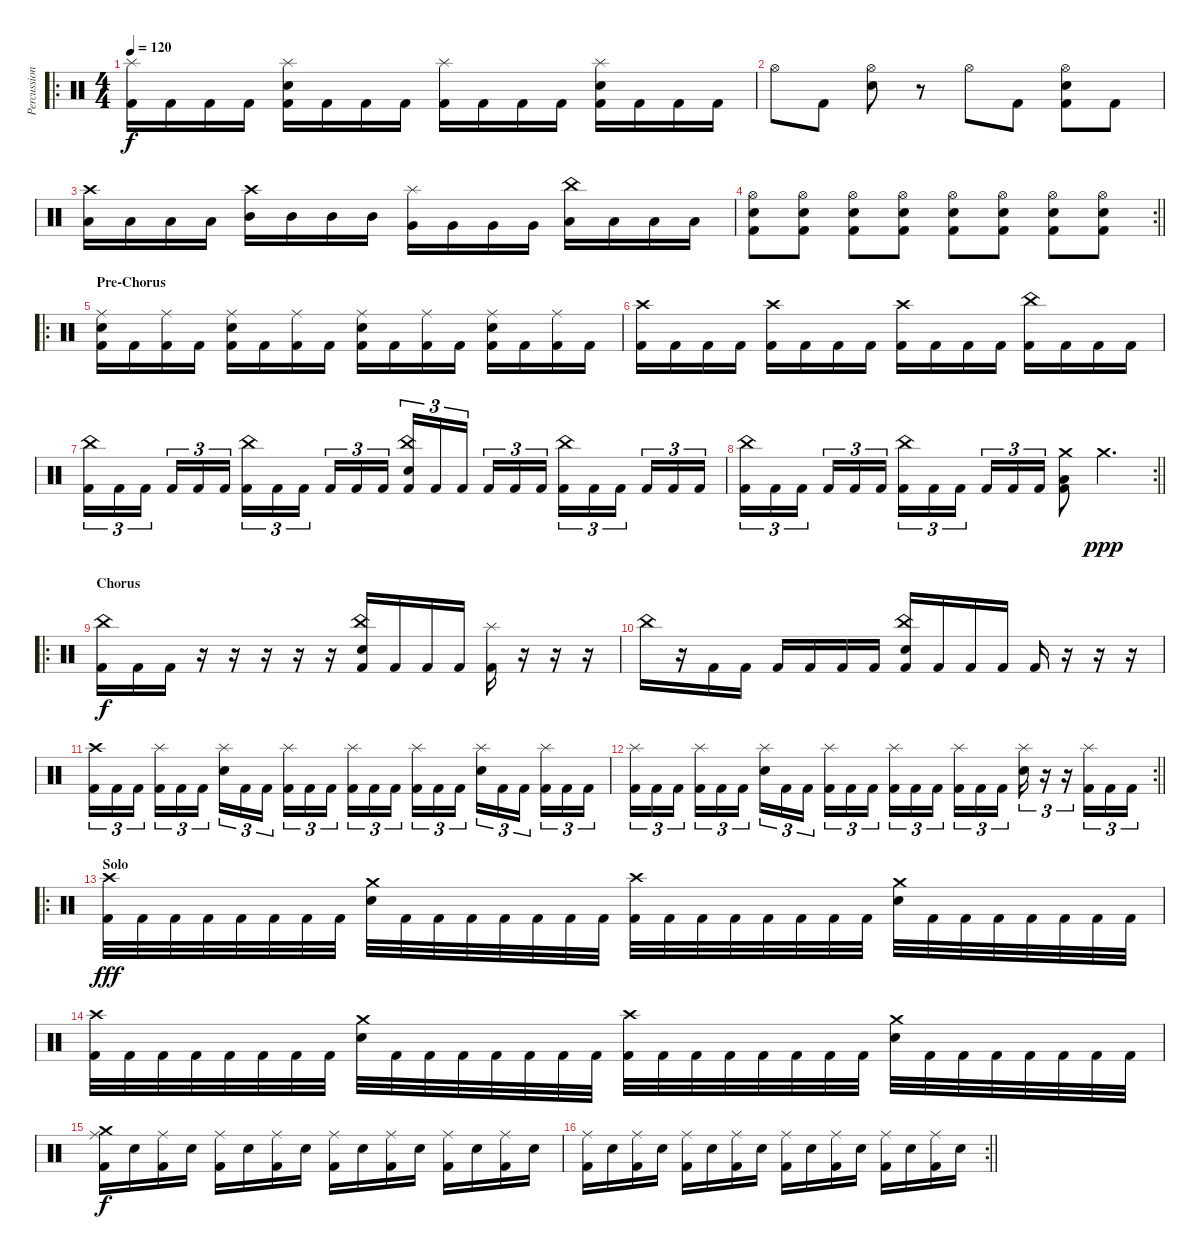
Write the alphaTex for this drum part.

\track ("Percussions" "Percussion") {instrument percussion}
\staff {score}
\articulation defaults
\ro
\ts (4 4)
\tempo 120
\clef neutral
\ks c
("Splash (hit)" "Kick (hit) 2").16{dy f} "Kick (hit) 2".16 "Kick (hit) 2".16 "Kick (hit) 2".16 ("Splash (hit)" "Electric Snare (hit)" "Kick (hit) 2").16 "Kick (hit) 2".16 "Kick (hit) 2".16 "Kick (hit) 2".16 ("Splash (hit)" "Kick (hit) 2").16 "Kick (hit) 2".16 "Kick (hit) 2".16 "Kick (hit) 2".16 ("Splash (hit)" "Electric Snare (hit)" "Kick (hit) 2").16 "Kick (hit) 2".16 "Kick (hit) 2".16 "Kick (hit) 2".16 |
"Hi-Hat (open)".8 "Kick (hit) 2".8 ("Electric Snare (hit)" "Hi-Hat (open)").8 r.8 "Hi-Hat (open)".8 "Kick (hit) 2".8 ("Kick (hit) 2" "Hi-Hat (open)" "Electric Snare (hit)").8 "Kick (hit) 2".8 |
("Low Tom (hit)" "Crash high (hit)").16 "Low Tom (hit)".16 "Low Tom (hit)".16 "Low Tom (hit)".16 ("Mid Tom (hit)" "Crash high (hit)").16 "Mid Tom (hit)".16 "Mid Tom (hit)".16 "Mid Tom (hit)".16 ("Very Low Tom (hit)" "Splash (hit)").16 "Very Low Tom (hit)".16 "Very Low Tom (hit)".16 "Very Low Tom (hit)".16 ("Low Floor Tom (hit)" "China (hit)").16 "Low Floor Tom (hit)".16 "Low Floor Tom (hit)".16 "Low Floor Tom (hit)".16 |
\rc 2
\barLineRight lightlight
("Kick (hit) 2" "Electric Snare (hit)" "Hi-Hat (open)").8 ("Hi-Hat (open)" "Kick (hit) 2" "Electric Snare (hit)").8 ("Electric Snare (hit)" "Kick (hit) 2" "Hi-Hat (open)").8 ("Hi-Hat (open)" "Kick (hit) 2" "Electric Snare (hit)").8 ("Hi-Hat (open)" "Kick (hit) 2" "Electric Snare (hit)").8 ("Electric Snare (hit)" "Kick (hit) 2" "Hi-Hat (open)").8 ("Hi-Hat (open)" "Kick (hit) 2" "Electric Snare (hit)").8 ("Electric Snare (hit)" "Kick (hit) 2" "Hi-Hat (open)").8 |
\ro
\section ("" "Pre-Chorus")
("Electric Snare (hit)" "Kick (hit) 2" "Ride (middle)").16 "Kick (hit) 2".16 ("Kick (hit) 2" "Ride (middle)").16 "Kick (hit) 2".16 ("Kick (hit) 2" "Electric Snare (hit)" "Ride (middle)").16 "Kick (hit) 2".16 ("Kick (hit) 2" "Ride (middle)").16 "Kick (hit) 2".16 ("Ride (middle)" "Kick (hit) 2" "Electric Snare (hit)").16 "Kick (hit) 2".16 ("Kick (hit) 2" "Ride (middle)").16 "Kick (hit) 2".16 ("Ride (middle)" "Kick (hit) 2" "Electric Snare (hit)").16 "Kick (hit) 2".16 ("Kick (hit) 2" "Ride (middle)").16 "Kick (hit) 2".16 |
("Kick (hit) 2" "Crash high (hit)").16 "Kick (hit) 2".16 "Kick (hit) 2".16 "Kick (hit) 2".16 ("Kick (hit) 2" "Crash high (hit)").16 "Kick (hit) 2".16 "Kick (hit) 2".16 "Kick (hit) 2".16 ("Kick (hit) 2" "Crash high (hit)").16 "Kick (hit) 2".16 "Kick (hit) 2".16 "Kick (hit) 2".16 ("Kick (hit) 2" "China (hit)").16 "Kick (hit) 2".16 "Kick (hit) 2".16 "Kick (hit) 2".16 |
("China (hit)" "Kick (hit) 2").16{tu (3 2)} "Kick (hit) 2".16{tu (3 2)} "Kick (hit) 2".16{tu (3 2) beam splitsecondary} "Kick (hit) 2".16{tu (3 2)} "Kick (hit) 2".16{tu (3 2)} "Kick (hit) 2".16{tu (3 2)} ("China (hit)" "Kick (hit) 2").16{tu (3 2)} "Kick (hit) 2".16{tu (3 2)} "Kick (hit) 2".16{tu (3 2) beam splitsecondary} "Kick (hit) 2".16{tu (3 2)} "Kick (hit) 2".16{tu (3 2)} "Kick (hit) 2".16{tu (3 2)} ("China (hit)" "Snare (hit) 2" "Kick (hit) 2").16{tu (3 2)} "Kick (hit) 2".16{tu (3 2)} "Kick (hit) 2".16{tu (3 2) beam splitsecondary} "Kick (hit) 2".16{tu (3 2)} "Kick (hit) 2".16{tu (3 2)} "Kick (hit) 2".16{tu (3 2)} ("China (hit)" "Kick (hit) 2").16{tu (3 2)} "Kick (hit) 2".16{tu (3 2)} "Kick (hit) 2".16{tu (3 2) beam splitsecondary} "Kick (hit) 2".16{tu (3 2)} "Kick (hit) 2".16{tu (3 2)} "Kick (hit) 2".16{tu (3 2)} |
\rc 2
\barLineRight lightlight
("China (hit)" "Kick (hit) 2").16{tu (3 2)} "Kick (hit) 2".16{tu (3 2)} "Kick (hit) 2".16{tu (3 2) beam splitsecondary} "Kick (hit) 2".16{tu (3 2)} "Kick (hit) 2".16{tu (3 2)} "Kick (hit) 2".16{tu (3 2)} ("China (hit)" "Kick (hit) 2").16{tu (3 2)} "Kick (hit) 2".16{tu (3 2)} "Kick (hit) 2".16{tu (3 2) beam splitsecondary} "Kick (hit) 2".16{tu (3 2)} "Kick (hit) 2".16{tu (3 2)} "Kick (hit) 2".16{tu (3 2)} ("Crash medium (hit)" "Low Floor Tom (hit)" "Kick (hit) 2").8 "Crash medium (hit)".4{d dy ppp} |
\ro
\section ("" "Chorus")
("China (hit)" "Kick (hit) 2").16{dy f} "Kick (hit) 2".16 "Kick (hit) 2".16 r.16 r.16 r.16 r.16 r.16 ("China (hit)" "Snare (hit) 2" "Kick (hit) 2").16 "Kick (hit) 2".16 "Kick (hit) 2".16 "Kick (hit) 2".16 ("Splash (hit)" "Kick (hit) 2").16 r.16 r.16 r.16 |
"China (hit)".16 r.16 "Kick (hit) 2".16 "Kick (hit) 2".16 "Kick (hit) 2".16 "Kick (hit) 2".16 "Kick (hit) 2".16 "Kick (hit) 2".16 ("Snare (hit) 2" "China (hit)" "Kick (hit) 2").16 "Kick (hit) 2".16 "Kick (hit) 2".16 "Kick (hit) 2".16 "Kick (hit) 2".16 r.16 r.16 r.16 |
("Crash high (hit)" "Kick (hit) 2").16{tu (3 2)} "Kick (hit) 2".16{tu (3 2)} "Kick (hit) 2".16{tu (3 2) beam splitsecondary} ("Splash (hit)" "Kick (hit) 2").16{tu (3 2)} "Kick (hit) 2".16{tu (3 2)} "Kick (hit) 2".16{tu (3 2)} ("Splash (hit)" "Electric Snare (hit)").16{tu (3 2)} "Kick (hit) 2".16{tu (3 2)} "Kick (hit) 2".16{tu (3 2) beam splitsecondary} ("Splash (hit)" "Kick (hit) 2").16{tu (3 2)} "Kick (hit) 2".16{tu (3 2)} "Kick (hit) 2".16{tu (3 2)} ("Splash (hit)" "Kick (hit) 2").16{tu (3 2)} "Kick (hit) 2".16{tu (3 2)} "Kick (hit) 2".16{tu (3 2) beam splitsecondary} ("Splash (hit)" "Kick (hit) 2").16{tu (3 2)} "Kick (hit) 2".16{tu (3 2)} "Kick (hit) 2".16{tu (3 2)} ("Splash (hit)" "Electric Snare (hit)").16{tu (3 2)} "Kick (hit) 2".16{tu (3 2)} "Kick (hit) 2".16{tu (3 2) beam splitsecondary} ("Splash (hit)" "Kick (hit) 2").16{tu (3 2)} "Kick (hit) 2".16{tu (3 2)} "Kick (hit) 2".16{tu (3 2)} |
\rc 2
\barLineRight lightlight
("Splash (hit)" "Kick (hit) 2").16{tu (3 2)} "Kick (hit) 2".16{tu (3 2)} "Kick (hit) 2".16{tu (3 2) beam splitsecondary} ("Splash (hit)" "Kick (hit) 2").16{tu (3 2)} "Kick (hit) 2".16{tu (3 2)} "Kick (hit) 2".16{tu (3 2)} ("Splash (hit)" "Electric Snare (hit)").16{tu (3 2)} "Kick (hit) 2".16{tu (3 2)} "Kick (hit) 2".16{tu (3 2) beam splitsecondary} ("Splash (hit)" "Kick (hit) 2").16{tu (3 2)} "Kick (hit) 2".16{tu (3 2)} "Kick (hit) 2".16{tu (3 2)} ("Splash (hit)" "Kick (hit) 2").16{tu (3 2)} "Kick (hit) 2".16{tu (3 2)} "Kick (hit) 2".16{tu (3 2) beam splitsecondary} ("Splash (hit)" "Kick (hit) 2").16{tu (3 2)} "Kick (hit) 2".16{tu (3 2)} "Kick (hit) 2".16{tu (3 2)} ("Splash (hit)" "Electric Snare (hit)").16{tu (3 2)} r.16{tu (3 2)} r.16{tu (3 2)} ("Splash (hit)" "Kick (hit) 2").16{tu (3 2)} "Kick (hit) 2".16{tu (3 2)} "Kick (hit) 2".16{tu (3 2)} |
\ro
\section ("" "Solo")
("Crash high (hit)" "Kick (hit) 2").32{dy fff} "Kick (hit) 2".32 "Kick (hit) 2".32 "Kick (hit) 2".32 "Kick (hit) 2".32 "Kick (hit) 2".32 "Kick (hit) 2".32 "Kick (hit) 2".32 ("Crash medium (hit)" "Electric Snare (hit)").32 "Kick (hit) 2".32 "Kick (hit) 2".32 "Kick (hit) 2".32 "Kick (hit) 2".32 "Kick (hit) 2".32 "Kick (hit) 2".32 "Kick (hit) 2".32 ("Crash high (hit)" "Kick (hit) 2").32 "Kick (hit) 2".32 "Kick (hit) 2".32 "Kick (hit) 2".32 "Kick (hit) 2".32 "Kick (hit) 2".32 "Kick (hit) 2".32 "Kick (hit) 2".32 ("Crash medium (hit)" "Electric Snare (hit)").32 "Kick (hit) 2".32 "Kick (hit) 2".32 "Kick (hit) 2".32 "Kick (hit) 2".32 "Kick (hit) 2".32 "Kick (hit) 2".32 "Kick (hit) 2".32 |
("Crash high (hit)" "Kick (hit) 2").32 "Kick (hit) 2".32 "Kick (hit) 2".32 "Kick (hit) 2".32 "Kick (hit) 2".32 "Kick (hit) 2".32 "Kick (hit) 2".32 "Kick (hit) 2".32 ("Crash medium (hit)" "Electric Snare (hit)").32 "Kick (hit) 2".32 "Kick (hit) 2".32 "Kick (hit) 2".32 "Kick (hit) 2".32 "Kick (hit) 2".32 "Kick (hit) 2".32 "Kick (hit) 2".32 ("Crash high (hit)" "Kick (hit) 2").32 "Kick (hit) 2".32 "Kick (hit) 2".32 "Kick (hit) 2".32 "Kick (hit) 2".32 "Kick (hit) 2".32 "Kick (hit) 2".32 "Kick (hit) 2".32 ("Crash medium (hit)" "Electric Snare (hit)").32 "Kick (hit) 2".32 "Kick (hit) 2".32 "Kick (hit) 2".32 "Kick (hit) 2".32 "Kick (hit) 2".32 "Kick (hit) 2".32 "Kick (hit) 2".32 |
("Kick (hit) 2" "Ride (middle)" "Crash medium (hit)").16{dy f} "Electric Snare (hit)".16 ("Kick (hit) 2" "Ride (middle)").16 "Electric Snare (hit)".16 ("Kick (hit) 2" "Ride (middle)").16 "Electric Snare (hit)".16 ("Kick (hit) 2" "Ride (middle)").16 "Electric Snare (hit)".16 ("Kick (hit) 2" "Ride (middle)").16 "Electric Snare (hit)".16 ("Kick (hit) 2" "Ride (middle)").16 "Electric Snare (hit)".16 ("Kick (hit) 2" "Ride (middle)").16 "Electric Snare (hit)".16 ("Kick (hit) 2" "Ride (middle)").16 "Electric Snare (hit)".16 |
\rc 2
\barLineRight lightlight
("Kick (hit) 2" "Ride (middle)").16 "Electric Snare (hit)".16 ("Kick (hit) 2" "Ride (middle)").16 "Electric Snare (hit)".16 ("Kick (hit) 2" "Ride (middle)").16 "Electric Snare (hit)".16 ("Kick (hit) 2" "Ride (middle)").16 "Electric Snare (hit)".16 ("Kick (hit) 2" "Ride (middle)").16 "Electric Snare (hit)".16 ("Kick (hit) 2" "Ride (middle)").16 "Electric Snare (hit)".16 ("Kick (hit) 2" "Ride (middle)").16 "Electric Snare (hit)".16 ("Kick (hit) 2" "Ride (middle)").16 "Electric Snare (hit)".16
